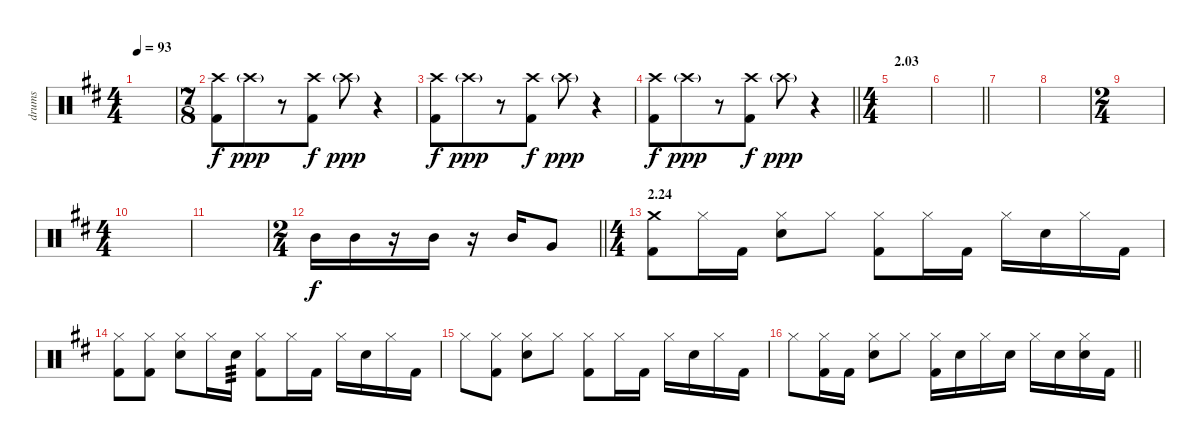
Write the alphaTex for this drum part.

\track ("drums" "drums") {instrument percussion}
\staff {score}
\articulation defaults
\ts (4 4)
\tempo 93
\clef neutral
\ks d
|
\ts (7 8)
("Crash high (hit)" "Kick (hit) 2").8 "Crash high (hit)"{g}.8{dy ppp} r.8 ("Crash high (hit)" "Kick (hit) 2").8{dy f} "Crash high (hit)"{g}.8{dy ppp} r.4 |
("Crash high (hit)" "Kick (hit) 2").8{dy f} "Crash high (hit)"{g}.8{dy ppp} r.8 ("Crash high (hit)" "Kick (hit) 2").8{dy f} "Crash high (hit)"{g}.8{dy ppp} r.4 |
\barLineRight lightlight
("Crash high (hit)" "Kick (hit) 2").8{dy f} "Crash high (hit)"{g}.8{dy ppp} r.8 ("Crash high (hit)" "Kick (hit) 2").8{dy f} "Crash high (hit)"{g}.8{dy ppp} r.4 |
\ts (4 4)
\section ("" "2.03")
|
\barLineRight lightlight
|
|
|
\ts (2 4)
|
\ts (4 4)
|
|
\ts (2 4)
\barLineRight lightlight "Mid Tom (hit)".16{dy f} "Mid Tom (hit)".16
r.16 "Mid Tom (hit)".16 r.16 "Mid Tom (hit)".16 "Very Low Tom (hit)".8 |
\ts (4 4)
\section ("" "2.24")
("Crash medium (hit)" "Kick (hit) 2").8 "Hi-Hat (closed)".16 "Kick (hit) 2".16 ("Hi-Hat (closed)" "Electric Snare (hit)").8 "Hi-Hat (closed)".8 ("Hi-Hat (closed)" "Kick (hit) 2").8 "Hi-Hat (closed)".16 "Kick (hit) 2".16 "Hi-Hat (closed)".16 "Electric Snare (hit)".16 "Hi-Hat (closed)".16 "Kick (hit) 2".16 |
("Hi-Hat (closed)" "Kick (hit) 2").8 ("Hi-Hat (closed)" "Kick (hit) 2").8 ("Hi-Hat (closed)" "Electric Snare (hit)").8 "Hi-Hat (closed)".16 "Electric Snare (hit)".16{tp 3} ("Hi-Hat (closed)" "Kick (hit) 2").8 "Hi-Hat (closed)".16 "Kick (hit) 2".16 "Hi-Hat (closed)".16 "Electric Snare (hit)".16 "Hi-Hat (closed)".16 "Kick (hit) 2".16 |
"Hi-Hat (closed)".8 ("Hi-Hat (closed)" "Kick (hit) 2").8 ("Hi-Hat (closed)" "Electric Snare (hit)").8 "Hi-Hat (closed)".8 ("Hi-Hat (closed)" "Kick (hit) 2").8 "Hi-Hat (closed)".16 "Kick (hit) 2".16 "Hi-Hat (closed)".16 "Electric Snare (hit)".16 "Hi-Hat (closed)".16 "Kick (hit) 2".16 |
\barLineRight lightlight "Hi-Hat (closed)".8
("Hi-Hat (closed)" "Kick (hit) 2").16 "Kick (hit) 2".16 ("Hi-Hat (closed)" "Electric Snare (hit)").8 "Hi-Hat (closed)".8 ("Hi-Hat (closed)" "Kick (hit) 2").16 "Electric Snare (hit)".16 "Hi-Hat (closed)".16 "Electric Snare (hit)".16 "Hi-Hat (closed)".16 "Electric Snare (hit)".16 ("Hi-Hat (closed)" "Electric Snare (hit)").16 "Kick (hit) 2".16
